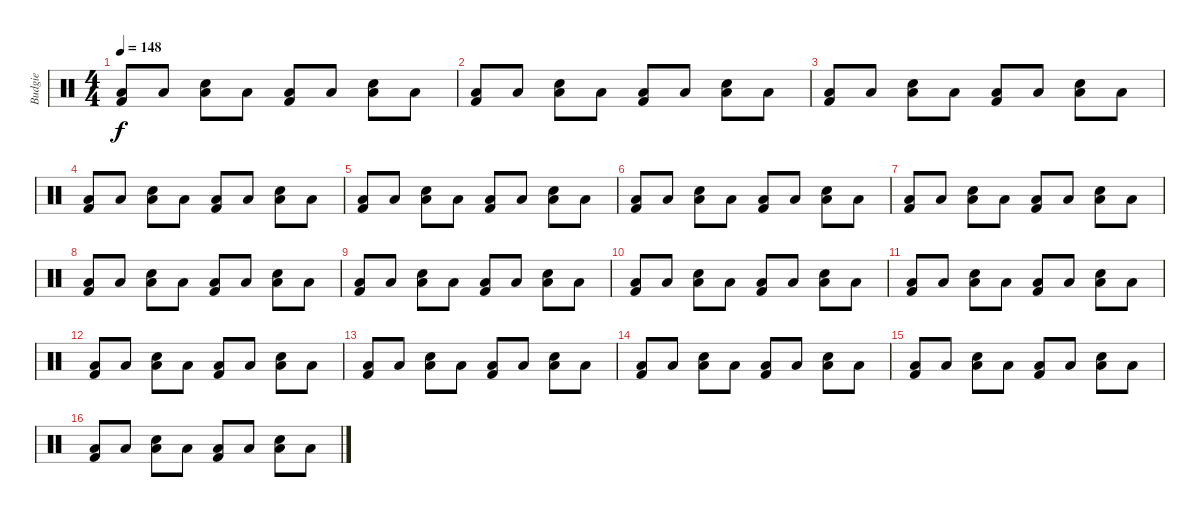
\track ("Budgie" "Budgie") {instrument percussion}
\staff {score}
\articulation defaults
\ts (4 4)
\tempo 148
\clef neutral
\ks c
("Low Floor Tom (hit)" "Kick (hit) 2").8{dy f} "Low Floor Tom (hit)".8 ("Snare (hit) 2" "Low Floor Tom (hit)").8 "Low Floor Tom (hit)".8 ("Low Floor Tom (hit)" "Kick (hit) 2").8 "Low Floor Tom (hit)".8 ("Snare (hit) 2" "Low Floor Tom (hit)").8 "Low Floor Tom (hit)".8 |
("Low Floor Tom (hit)" "Kick (hit) 2").8 "Low Floor Tom (hit)".8 ("Snare (hit) 2" "Low Floor Tom (hit)").8 "Low Floor Tom (hit)".8 ("Low Floor Tom (hit)" "Kick (hit) 2").8 "Low Floor Tom (hit)".8 ("Snare (hit) 2" "Low Floor Tom (hit)").8 "Low Floor Tom (hit)".8 |
("Low Floor Tom (hit)" "Kick (hit) 2").8 "Low Floor Tom (hit)".8 ("Snare (hit) 2" "Low Floor Tom (hit)").8 "Low Floor Tom (hit)".8 ("Low Floor Tom (hit)" "Kick (hit) 2").8 "Low Floor Tom (hit)".8 ("Snare (hit) 2" "Low Floor Tom (hit)").8 "Low Floor Tom (hit)".8 |
("Low Floor Tom (hit)" "Kick (hit) 2").8 "Low Floor Tom (hit)".8 ("Snare (hit) 2" "Low Floor Tom (hit)").8 "Low Floor Tom (hit)".8 ("Low Floor Tom (hit)" "Kick (hit) 2").8 "Low Floor Tom (hit)".8 ("Snare (hit) 2" "Low Floor Tom (hit)").8 "Low Floor Tom (hit)".8 |
("Low Floor Tom (hit)" "Kick (hit) 2").8 "Low Floor Tom (hit)".8 ("Snare (hit) 2" "Low Floor Tom (hit)").8 "Low Floor Tom (hit)".8 ("Low Floor Tom (hit)" "Kick (hit) 2").8 "Low Floor Tom (hit)".8 ("Snare (hit) 2" "Low Floor Tom (hit)").8 "Low Floor Tom (hit)".8 |
("Low Floor Tom (hit)" "Kick (hit) 2").8 "Low Floor Tom (hit)".8 ("Snare (hit) 2" "Low Floor Tom (hit)").8 "Low Floor Tom (hit)".8 ("Low Floor Tom (hit)" "Kick (hit) 2").8 "Low Floor Tom (hit)".8 ("Snare (hit) 2" "Low Floor Tom (hit)").8 "Low Floor Tom (hit)".8 |
("Low Floor Tom (hit)" "Kick (hit) 2").8 "Low Floor Tom (hit)".8 ("Snare (hit) 2" "Low Floor Tom (hit)").8 "Low Floor Tom (hit)".8 ("Low Floor Tom (hit)" "Kick (hit) 2").8 "Low Floor Tom (hit)".8 ("Snare (hit) 2" "Low Floor Tom (hit)").8 "Low Floor Tom (hit)".8 |
("Low Floor Tom (hit)" "Kick (hit) 2").8 "Low Floor Tom (hit)".8 ("Snare (hit) 2" "Low Floor Tom (hit)").8 "Low Floor Tom (hit)".8 ("Low Floor Tom (hit)" "Kick (hit) 2").8 "Low Floor Tom (hit)".8 ("Snare (hit) 2" "Low Floor Tom (hit)").8 "Low Floor Tom (hit)".8 |
("Low Floor Tom (hit)" "Kick (hit) 2").8 "Low Floor Tom (hit)".8 ("Snare (hit) 2" "Low Floor Tom (hit)").8 "Low Floor Tom (hit)".8 ("Low Floor Tom (hit)" "Kick (hit) 2").8 "Low Floor Tom (hit)".8 ("Snare (hit) 2" "Low Floor Tom (hit)").8 "Low Floor Tom (hit)".8 |
("Low Floor Tom (hit)" "Kick (hit) 2").8 "Low Floor Tom (hit)".8 ("Snare (hit) 2" "Low Floor Tom (hit)").8 "Low Floor Tom (hit)".8 ("Low Floor Tom (hit)" "Kick (hit) 2").8 "Low Floor Tom (hit)".8 ("Snare (hit) 2" "Low Floor Tom (hit)").8 "Low Floor Tom (hit)".8 |
("Low Floor Tom (hit)" "Kick (hit) 2").8 "Low Floor Tom (hit)".8 ("Snare (hit) 2" "Low Floor Tom (hit)").8 "Low Floor Tom (hit)".8 ("Low Floor Tom (hit)" "Kick (hit) 2").8 "Low Floor Tom (hit)".8 ("Snare (hit) 2" "Low Floor Tom (hit)").8 "Low Floor Tom (hit)".8 |
("Low Floor Tom (hit)" "Kick (hit) 2").8 "Low Floor Tom (hit)".8 ("Snare (hit) 2" "Low Floor Tom (hit)").8 "Low Floor Tom (hit)".8 ("Low Floor Tom (hit)" "Kick (hit) 2").8 "Low Floor Tom (hit)".8 ("Snare (hit) 2" "Low Floor Tom (hit)").8 "Low Floor Tom (hit)".8 |
("Low Floor Tom (hit)" "Kick (hit) 2").8 "Low Floor Tom (hit)".8 ("Snare (hit) 2" "Low Floor Tom (hit)").8 "Low Floor Tom (hit)".8 ("Low Floor Tom (hit)" "Kick (hit) 2").8 "Low Floor Tom (hit)".8 ("Snare (hit) 2" "Low Floor Tom (hit)").8 "Low Floor Tom (hit)".8 |
("Low Floor Tom (hit)" "Kick (hit) 2").8 "Low Floor Tom (hit)".8 ("Snare (hit) 2" "Low Floor Tom (hit)").8 "Low Floor Tom (hit)".8 ("Low Floor Tom (hit)" "Kick (hit) 2").8 "Low Floor Tom (hit)".8 ("Snare (hit) 2" "Low Floor Tom (hit)").8 "Low Floor Tom (hit)".8 |
("Low Floor Tom (hit)" "Kick (hit) 2").8 "Low Floor Tom (hit)".8 ("Snare (hit) 2" "Low Floor Tom (hit)").8 "Low Floor Tom (hit)".8 ("Low Floor Tom (hit)" "Kick (hit) 2").8 "Low Floor Tom (hit)".8 ("Snare (hit) 2" "Low Floor Tom (hit)").8 "Low Floor Tom (hit)".8 |
("Low Floor Tom (hit)" "Kick (hit) 2").8 "Low Floor Tom (hit)".8 ("Snare (hit) 2" "Low Floor Tom (hit)").8 "Low Floor Tom (hit)".8 ("Low Floor Tom (hit)" "Kick (hit) 2").8 "Low Floor Tom (hit)".8 ("Snare (hit) 2" "Low Floor Tom (hit)").8 "Low Floor Tom (hit)".8
